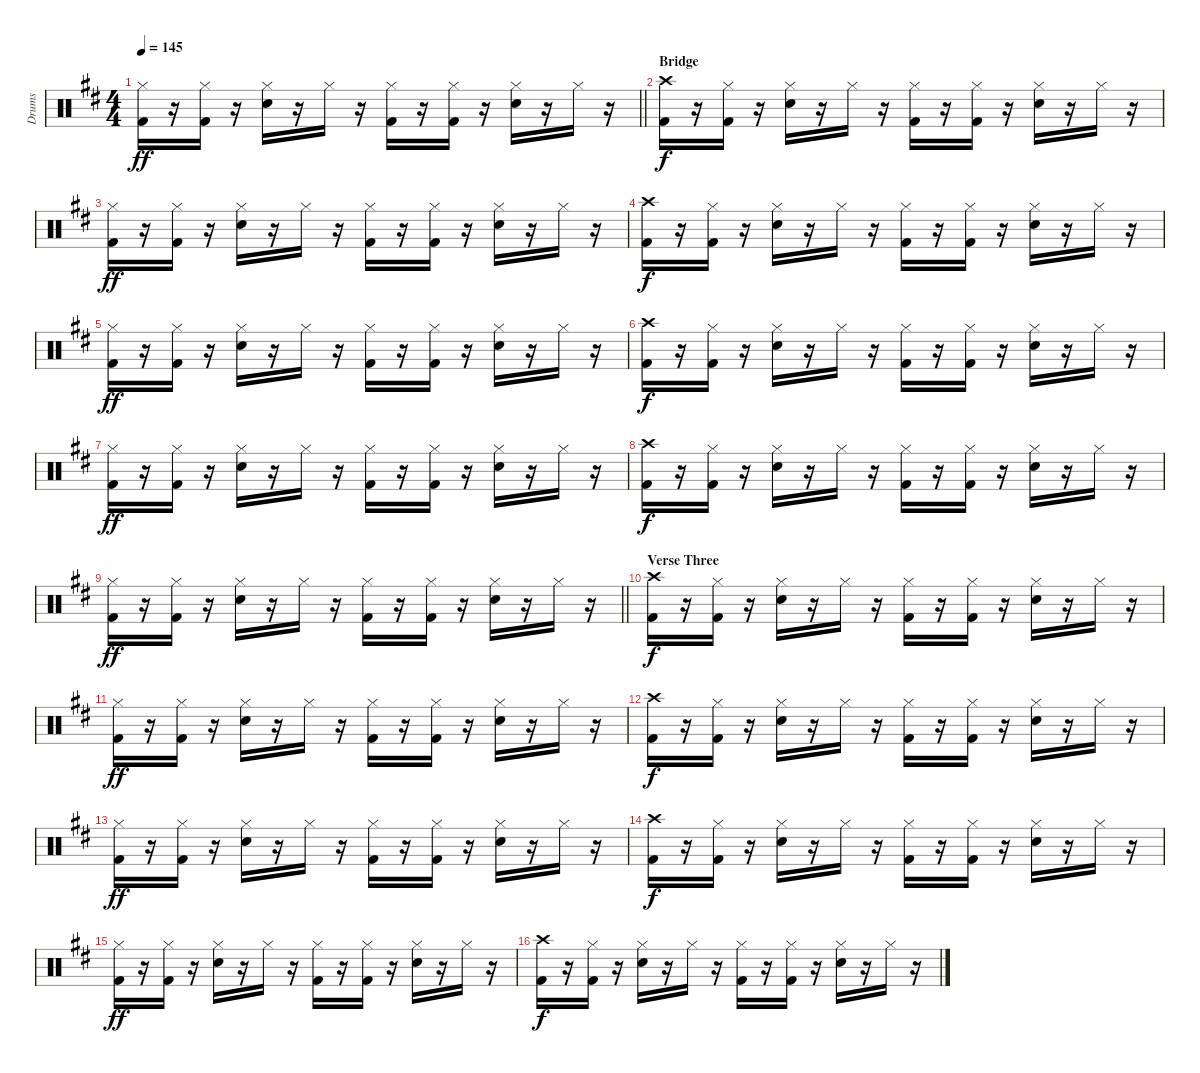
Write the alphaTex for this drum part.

\track ("Drums" "Drums") {instrument percussion}
\staff {score}
\articulation defaults
\ts (4 4)
\tempo 145
\clef neutral
\barLineRight lightlight
\ks d
("Hi-Hat (closed)" "Kick (hit) 2").16{dy ff} r.16 ("Hi-Hat (closed)" "Kick (hit) 2").16 r.16 ("Hi-Hat (closed)" "Snare (hit) 2").16 r.16 "Hi-Hat (closed)".16 r.16 ("Hi-Hat (closed)" "Kick (hit) 2").16 r.16 ("Hi-Hat (closed)" "Kick (hit) 2").16 r.16 ("Hi-Hat (closed)" "Snare (hit) 2").16 r.16 "Hi-Hat (closed)".16 r.16 |
\section ("" "Bridge")
("Crash high (hit)" "Kick (hit) 2").16{dy f} r.16 ("Hi-Hat (closed)" "Kick (hit) 2").16 r.16 ("Hi-Hat (closed)" "Snare (hit) 2").16 r.16 "Hi-Hat (closed)".16 r.16 ("Hi-Hat (closed)" "Kick (hit) 2").16 r.16 ("Hi-Hat (closed)" "Kick (hit) 2").16 r.16 ("Hi-Hat (closed)" "Snare (hit) 2").16 r.16 "Hi-Hat (closed)".16 r.16 |
("Hi-Hat (closed)" "Kick (hit) 2").16{dy ff} r.16 ("Hi-Hat (closed)" "Kick (hit) 2").16 r.16 ("Hi-Hat (closed)" "Snare (hit) 2").16 r.16 "Hi-Hat (closed)".16 r.16 ("Hi-Hat (closed)" "Kick (hit) 2").16 r.16 ("Hi-Hat (closed)" "Kick (hit) 2").16 r.16 ("Hi-Hat (closed)" "Snare (hit) 2").16 r.16 "Hi-Hat (closed)".16 r.16 |
("Crash high (hit)" "Kick (hit) 2").16{dy f} r.16 ("Hi-Hat (closed)" "Kick (hit) 2").16 r.16 ("Hi-Hat (closed)" "Snare (hit) 2").16 r.16 "Hi-Hat (closed)".16 r.16 ("Hi-Hat (closed)" "Kick (hit) 2").16 r.16 ("Hi-Hat (closed)" "Kick (hit) 2").16 r.16 ("Hi-Hat (closed)" "Snare (hit) 2").16 r.16 "Hi-Hat (closed)".16 r.16 |
("Hi-Hat (closed)" "Kick (hit) 2").16{dy ff} r.16 ("Hi-Hat (closed)" "Kick (hit) 2").16 r.16 ("Hi-Hat (closed)" "Snare (hit) 2").16 r.16 "Hi-Hat (closed)".16 r.16 ("Hi-Hat (closed)" "Kick (hit) 2").16 r.16 ("Hi-Hat (closed)" "Kick (hit) 2").16 r.16 ("Hi-Hat (closed)" "Snare (hit) 2").16 r.16 "Hi-Hat (closed)".16 r.16 |
("Crash high (hit)" "Kick (hit) 2").16{dy f} r.16 ("Hi-Hat (closed)" "Kick (hit) 2").16 r.16 ("Hi-Hat (closed)" "Snare (hit) 2").16 r.16 "Hi-Hat (closed)".16 r.16 ("Hi-Hat (closed)" "Kick (hit) 2").16 r.16 ("Hi-Hat (closed)" "Kick (hit) 2").16 r.16 ("Hi-Hat (closed)" "Snare (hit) 2").16 r.16 "Hi-Hat (closed)".16 r.16 |
("Hi-Hat (closed)" "Kick (hit) 2").16{dy ff} r.16 ("Hi-Hat (closed)" "Kick (hit) 2").16 r.16 ("Hi-Hat (closed)" "Snare (hit) 2").16 r.16 "Hi-Hat (closed)".16 r.16 ("Hi-Hat (closed)" "Kick (hit) 2").16 r.16 ("Hi-Hat (closed)" "Kick (hit) 2").16 r.16 ("Hi-Hat (closed)" "Snare (hit) 2").16 r.16 "Hi-Hat (closed)".16 r.16 |
("Crash high (hit)" "Kick (hit) 2").16{dy f} r.16 ("Hi-Hat (closed)" "Kick (hit) 2").16 r.16 ("Hi-Hat (closed)" "Snare (hit) 2").16 r.16 "Hi-Hat (closed)".16 r.16 ("Hi-Hat (closed)" "Kick (hit) 2").16 r.16 ("Hi-Hat (closed)" "Kick (hit) 2").16 r.16 ("Hi-Hat (closed)" "Snare (hit) 2").16 r.16 "Hi-Hat (closed)".16 r.16 |
\barLineRight lightlight
("Hi-Hat (closed)" "Kick (hit) 2").16{dy ff} r.16 ("Hi-Hat (closed)" "Kick (hit) 2").16 r.16 ("Hi-Hat (closed)" "Snare (hit) 2").16 r.16 "Hi-Hat (closed)".16 r.16 ("Hi-Hat (closed)" "Kick (hit) 2").16 r.16 ("Hi-Hat (closed)" "Kick (hit) 2").16 r.16 ("Hi-Hat (closed)" "Snare (hit) 2").16 r.16 "Hi-Hat (closed)".16 r.16 |
\section ("" "Verse Three")
("Crash high (hit)" "Kick (hit) 2").16{dy f} r.16 ("Hi-Hat (closed)" "Kick (hit) 2").16 r.16 ("Hi-Hat (closed)" "Snare (hit) 2").16 r.16 "Hi-Hat (closed)".16 r.16 ("Hi-Hat (closed)" "Kick (hit) 2").16 r.16 ("Hi-Hat (closed)" "Kick (hit) 2").16 r.16 ("Hi-Hat (closed)" "Snare (hit) 2").16 r.16 "Hi-Hat (closed)".16 r.16 |
("Hi-Hat (closed)" "Kick (hit) 2").16{dy ff} r.16 ("Hi-Hat (closed)" "Kick (hit) 2").16 r.16 ("Hi-Hat (closed)" "Snare (hit) 2").16 r.16 "Hi-Hat (closed)".16 r.16 ("Hi-Hat (closed)" "Kick (hit) 2").16 r.16 ("Hi-Hat (closed)" "Kick (hit) 2").16 r.16 ("Hi-Hat (closed)" "Snare (hit) 2").16 r.16 "Hi-Hat (closed)".16 r.16 |
("Crash high (hit)" "Kick (hit) 2").16{dy f} r.16 ("Hi-Hat (closed)" "Kick (hit) 2").16 r.16 ("Hi-Hat (closed)" "Snare (hit) 2").16 r.16 "Hi-Hat (closed)".16 r.16 ("Hi-Hat (closed)" "Kick (hit) 2").16 r.16 ("Hi-Hat (closed)" "Kick (hit) 2").16 r.16 ("Hi-Hat (closed)" "Snare (hit) 2").16 r.16 "Hi-Hat (closed)".16 r.16 |
("Hi-Hat (closed)" "Kick (hit) 2").16{dy ff} r.16 ("Hi-Hat (closed)" "Kick (hit) 2").16 r.16 ("Hi-Hat (closed)" "Snare (hit) 2").16 r.16 "Hi-Hat (closed)".16 r.16 ("Hi-Hat (closed)" "Kick (hit) 2").16 r.16 ("Hi-Hat (closed)" "Kick (hit) 2").16 r.16 ("Hi-Hat (closed)" "Snare (hit) 2").16 r.16 "Hi-Hat (closed)".16 r.16 |
("Crash high (hit)" "Kick (hit) 2").16{dy f} r.16 ("Hi-Hat (closed)" "Kick (hit) 2").16 r.16 ("Hi-Hat (closed)" "Snare (hit) 2").16 r.16 "Hi-Hat (closed)".16 r.16 ("Hi-Hat (closed)" "Kick (hit) 2").16 r.16 ("Hi-Hat (closed)" "Kick (hit) 2").16 r.16 ("Hi-Hat (closed)" "Snare (hit) 2").16 r.16 "Hi-Hat (closed)".16 r.16 |
("Hi-Hat (closed)" "Kick (hit) 2").16{dy ff} r.16 ("Hi-Hat (closed)" "Kick (hit) 2").16 r.16 ("Hi-Hat (closed)" "Snare (hit) 2").16 r.16 "Hi-Hat (closed)".16 r.16 ("Hi-Hat (closed)" "Kick (hit) 2").16 r.16 ("Hi-Hat (closed)" "Kick (hit) 2").16 r.16 ("Hi-Hat (closed)" "Snare (hit) 2").16 r.16 "Hi-Hat (closed)".16 r.16 |
("Crash high (hit)" "Kick (hit) 2").16{dy f} r.16 ("Hi-Hat (closed)" "Kick (hit) 2").16 r.16 ("Hi-Hat (closed)" "Snare (hit) 2").16 r.16 "Hi-Hat (closed)".16 r.16 ("Hi-Hat (closed)" "Kick (hit) 2").16 r.16 ("Hi-Hat (closed)" "Kick (hit) 2").16 r.16 ("Hi-Hat (closed)" "Snare (hit) 2").16 r.16 "Hi-Hat (closed)".16 r.16
